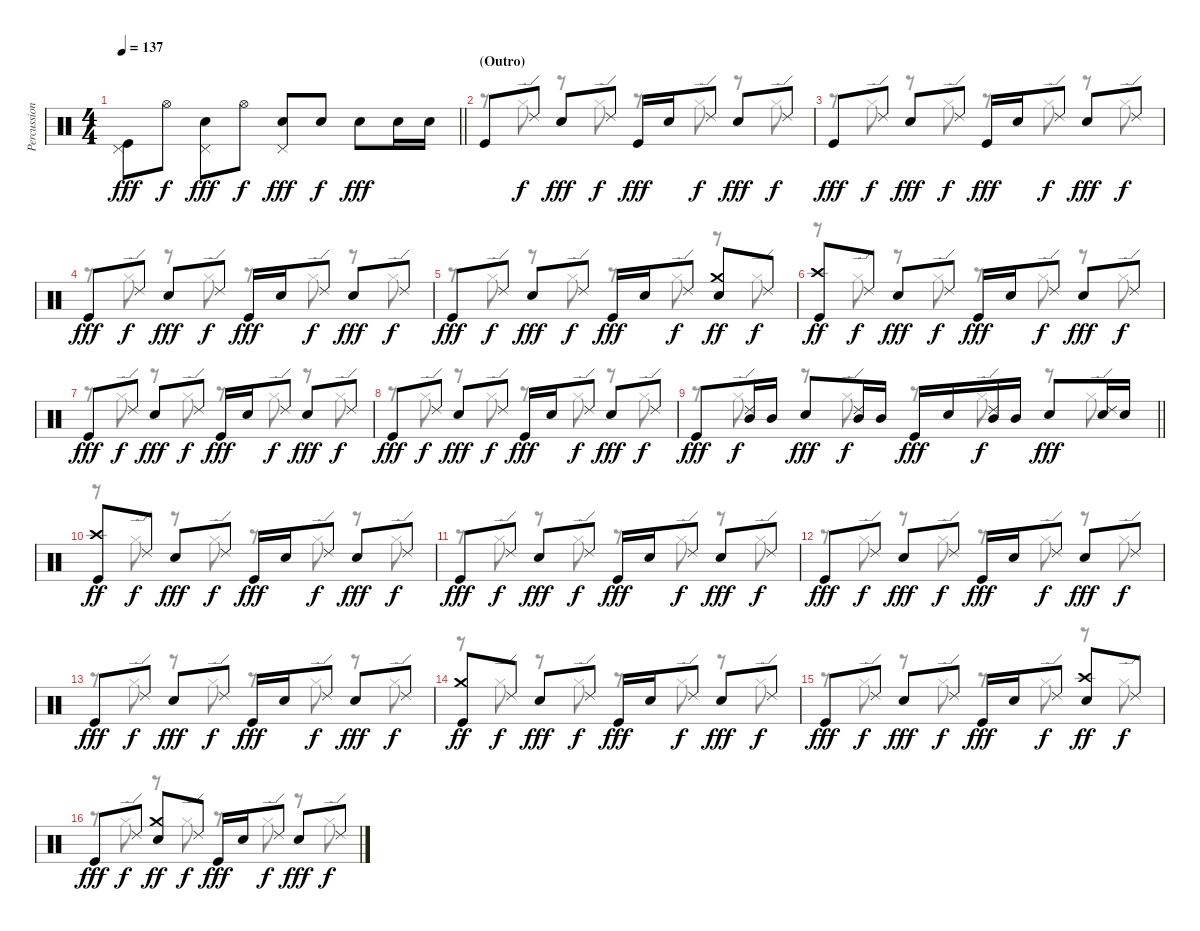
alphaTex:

\track ("Percussions" "Percussion") {instrument percussion}
\staff {score}
\articulation defaults
\voice
\ts (4 4)
\tempo 137
\clef neutral
\barLineRight lightlight
\ks c
("Kick (hit)" "Pedal Hi-Hat (hit)").8{dy fff} "Hi-Hat (open)".8{dy f} ("Electric Snare (hit)" "Pedal Hi-Hat (hit)").8{dy fff} "Hi-Hat (open)".8{dy f} ("Electric Snare (hit)" "Pedal Hi-Hat (hit)").8{dy fff} "Electric Snare (hit)".8{dy f} "Electric Snare (hit)".8{dy fff} "Electric Snare (hit)".16 "Electric Snare (hit)".16 |
\section ("" "(Outro)")
"Kick (hit)".8 "Ride (edge) 2".8{dy f} "Electric Snare (hit)".8{dy fff} "Ride (edge) 2".8{dy f} "Kick (hit)".16{dy fff} "Electric Snare (hit)".16 "Ride (edge) 2".8{dy f} "Electric Snare (hit)".8{dy fff} "Ride (edge) 2".8{dy f} |
"Kick (hit)".8{dy fff} "Ride (edge) 2".8{dy f} "Electric Snare (hit)".8{dy fff} "Ride (edge) 2".8{dy f} "Kick (hit)".16{dy fff} "Electric Snare (hit)".16 "Ride (edge) 2".8{dy f} "Electric Snare (hit)".8{dy fff} "Ride (edge) 2".8{dy f} |
"Kick (hit)".8{dy fff} "Ride (edge) 2".8{dy f} "Electric Snare (hit)".8{dy fff} "Ride (edge) 2".8{dy f} "Kick (hit)".16{dy fff} "Electric Snare (hit)".16 "Ride (edge) 2".8{dy f} "Electric Snare (hit)".8{dy fff} "Ride (edge) 2".8{dy f} |
"Kick (hit)".8{dy fff} "Ride (edge) 2".8{dy f} "Electric Snare (hit)".8{dy fff} "Ride (edge) 2".8{dy f} "Kick (hit)".16{dy fff} "Electric Snare (hit)".16 "Ride (edge) 2".8{dy f} ("Electric Snare (hit)" "Crash medium (hit)").8{dy ff} "Ride (edge) 2".8{dy f} |
("Kick (hit)" "Crash high (hit)").8{dy ff} "Ride (edge) 2".8{dy f} "Electric Snare (hit)".8{dy fff} "Ride (edge) 2".8{dy f} "Kick (hit)".16{dy fff} "Electric Snare (hit)".16 "Ride (edge) 2".8{dy f} "Electric Snare (hit)".8{dy fff} "Ride (edge) 2".8{dy f} |
"Kick (hit)".8{dy fff} "Ride (edge) 2".8{dy f} "Electric Snare (hit)".8{dy fff} "Ride (edge) 2".8{dy f} "Kick (hit)".16{dy fff} "Electric Snare (hit)".16 "Ride (edge) 2".8{dy f} "Electric Snare (hit)".8{dy fff} "Ride (edge) 2".8{dy f} |
"Kick (hit)".8{dy fff} "Ride (edge) 2".8{dy f} "Electric Snare (hit)".8{dy fff} "Ride (edge) 2".8{dy f} "Kick (hit)".16{dy fff} "Electric Snare (hit)".16 "Ride (edge) 2".8{dy f} "Electric Snare (hit)".8{dy fff} "Ride (edge) 2".8{dy f} |
\barLineRight lightlight "Kick (hit)".8{dy fff}
("Mid Tom (hit)" "Ride (edge) 2").16{dy f} "Mid Tom (hit)".16 "Electric Snare (hit)".8{dy fff} ("Mid Tom (hit)" "Ride (edge) 2").16{dy f} "Mid Tom (hit)".16 "Kick (hit)".16{dy fff} "Electric Snare (hit)".16 ("Mid Tom (hit)" "Ride (edge) 2").16{dy f} "Mid Tom (hit)".16 "Electric Snare (hit)".8{dy fff} ("Electric Snare (hit)" "Ride (edge) 2").16 "Electric Snare (hit)".16 |
("Kick (hit)" "Crash high (hit)").8{dy ff} "Ride (edge) 2".8{dy f} "Electric Snare (hit)".8{dy fff} "Ride (edge) 2".8{dy f} "Kick (hit)".16{dy fff} "Electric Snare (hit)".16 "Ride (edge) 2".8{dy f} "Electric Snare (hit)".8{dy fff} "Ride (edge) 2".8{dy f} |
"Kick (hit)".8{dy fff} "Ride (edge) 2".8{dy f} "Electric Snare (hit)".8{dy fff} "Ride (edge) 2".8{dy f} "Kick (hit)".16{dy fff} "Electric Snare (hit)".16 "Ride (edge) 2".8{dy f} "Electric Snare (hit)".8{dy fff} "Ride (edge) 2".8{dy f} |
"Kick (hit)".8{dy fff} "Ride (edge) 2".8{dy f} "Electric Snare (hit)".8{dy fff} "Ride (edge) 2".8{dy f} "Kick (hit)".16{dy fff} "Electric Snare (hit)".16 "Ride (edge) 2".8{dy f} "Electric Snare (hit)".8{dy fff} "Ride (edge) 2".8{dy f} |
"Kick (hit)".8{dy fff} "Ride (edge) 2".8{dy f} "Electric Snare (hit)".8{dy fff} "Ride (edge) 2".8{dy f} "Kick (hit)".16{dy fff} "Electric Snare (hit)".16 "Ride (edge) 2".8{dy f} "Electric Snare (hit)".8{dy fff} "Ride (edge) 2".8{dy f} |
("Kick (hit)" "Crash medium (hit)").8{dy ff} "Ride (edge) 2".8{dy f} "Electric Snare (hit)".8{dy fff} "Ride (edge) 2".8{dy f} "Kick (hit)".16{dy fff} "Electric Snare (hit)".16 "Ride (edge) 2".8{dy f} "Electric Snare (hit)".8{dy fff} "Ride (edge) 2".8{dy f} |
"Kick (hit)".8{dy fff} "Ride (edge) 2".8{dy f} "Electric Snare (hit)".8{dy fff} "Ride (edge) 2".8{dy f} "Kick (hit)".16{dy fff} "Electric Snare (hit)".16 "Ride (edge) 2".8{dy f} ("Electric Snare (hit)" "Crash high (hit)").8{dy ff} "Ride (edge) 2".8{dy f} |
"Kick (hit)".8{dy fff} "Ride (edge) 2".8{dy f} ("Electric Snare (hit)" "Crash medium (hit)").8{dy ff} "Ride (edge) 2".8{dy f} "Kick (hit)".16{dy fff} "Electric Snare (hit)".16 "Ride (edge) 2".8{dy f} "Electric Snare (hit)".8{dy fff} "Ride (edge) 2".8{dy f}
\voice
\clef neutral
\ottava regular
\simile none
\barLineRight lightlight
\ks c
|
r.8 "Hi-Hat (closed)".8 r.8 "Hi-Hat (closed)".8 r.8 "Hi-Hat (closed)".8 r.8 "Hi-Hat (closed)".8 |
r.8 "Hi-Hat (closed)".8 r.8 "Hi-Hat (closed)".8 r.8 "Hi-Hat (closed)".8 r.8 "Hi-Hat (closed)".8 |
r.8 "Hi-Hat (closed)".8 r.8 "Hi-Hat (closed)".8 r.8 "Hi-Hat (closed)".8 r.8 "Hi-Hat (closed)".8 |
r.8 "Hi-Hat (closed)".8 r.8 "Hi-Hat (closed)".8 r.8 "Hi-Hat (closed)".8 r.8 "Hi-Hat (closed)".8 |
r.8 "Hi-Hat (closed)".8 r.8 "Hi-Hat (closed)".8 r.8 "Hi-Hat (closed)".8 r.8 "Hi-Hat (closed)".8 |
r.8 "Hi-Hat (closed)".8 r.8 "Hi-Hat (closed)".8 r.8 "Hi-Hat (closed)".8 r.8 "Hi-Hat (closed)".8 |
r.8 "Hi-Hat (closed)".8 r.8 "Hi-Hat (closed)".8 r.8 "Hi-Hat (closed)".8 r.8 "Hi-Hat (closed)".8 |
\barLineRight lightlight
r.8 "Hi-Hat (closed)".8 r.8 "Hi-Hat (closed)".8 r.8 "Hi-Hat (closed)".8 r.8 "Hi-Hat (closed)".8 |
r.8 "Hi-Hat (closed)".8 r.8 "Hi-Hat (closed)".8 r.8 "Hi-Hat (closed)".8 r.8 "Hi-Hat (closed)".8 |
r.8 "Hi-Hat (closed)".8 r.8 "Hi-Hat (closed)".8 r.8 "Hi-Hat (closed)".8 r.8 "Hi-Hat (closed)".8 |
r.8 "Hi-Hat (closed)".8 r.8 "Hi-Hat (closed)".8 r.8 "Hi-Hat (closed)".8 r.8 "Hi-Hat (closed)".8 |
r.8 "Hi-Hat (closed)".8 r.8 "Hi-Hat (closed)".8 r.8 "Hi-Hat (closed)".8 r.8 "Hi-Hat (closed)".8 |
r.8 "Hi-Hat (closed)".8 r.8 "Hi-Hat (closed)".8 r.8 "Hi-Hat (closed)".8 r.8 "Hi-Hat (closed)".8 |
r.8 "Hi-Hat (closed)".8 r.8 "Hi-Hat (closed)".8 r.8 "Hi-Hat (closed)".8 r.8 "Hi-Hat (closed)".8 |
r.8 "Hi-Hat (closed)".8 r.8 "Hi-Hat (closed)".8 r.8 "Hi-Hat (closed)".8 r.8 "Hi-Hat (closed)".8
